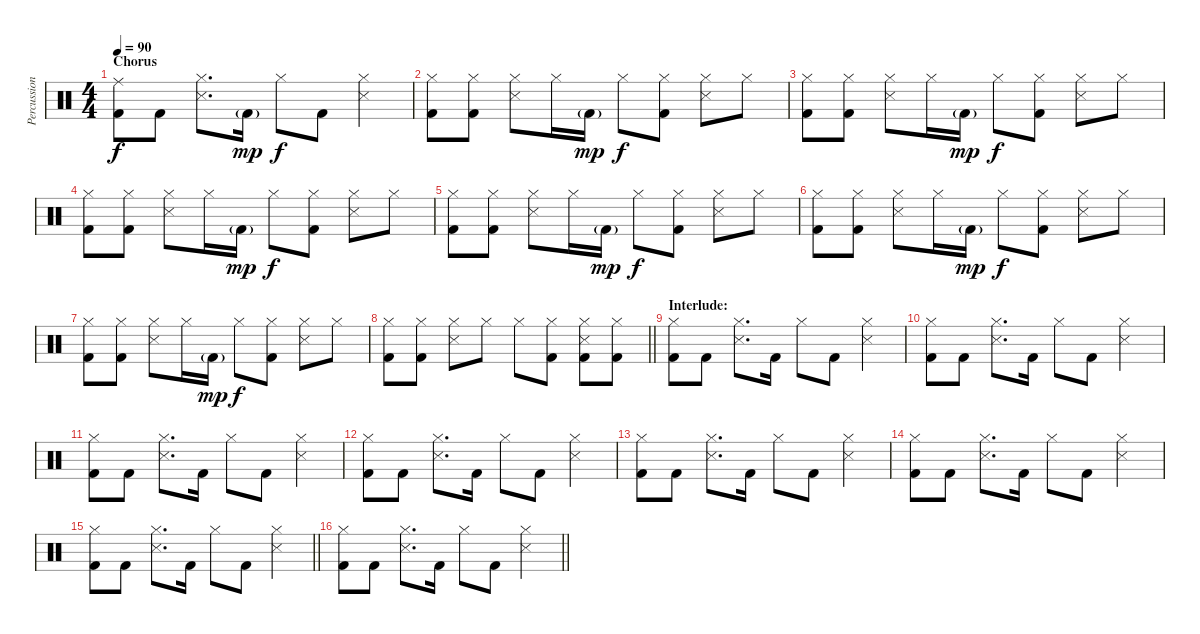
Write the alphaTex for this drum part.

\track ("Percussion" "Percussion") {instrument percussion}
\staff {score}
\articulation defaults
\ts (4 4)
\section ("" "Chorus")
\tempo 90
\clef neutral
\ks c
("Ride (middle)" "Kick (hit) 2").8{dy f} "Kick (hit) 2".8 ("Hi-Hat (closed)" "Snare (side stick) 3").8{d} "Kick (hit) 2"{g}.16{dy mp} "Hi-Hat (closed)".8{dy f} "Kick (hit) 2".8 ("Hi-Hat (closed)" "Snare (side stick) 3").4 |
("Hi-Hat (closed)" "Kick (hit) 2").8 ("Hi-Hat (closed)" "Kick (hit) 2").8 ("Hi-Hat (closed)" "Snare (side stick) 3").8 "Hi-Hat (closed)".16 "Kick (hit) 2"{g}.16{dy mp} "Hi-Hat (closed)".8{dy f} ("Hi-Hat (closed)" "Kick (hit) 2").8 ("Hi-Hat (closed)" "Snare (side stick) 3").8 "Hi-Hat (closed)".8 |
("Hi-Hat (closed)" "Kick (hit) 2").8 ("Hi-Hat (closed)" "Kick (hit) 2").8 ("Hi-Hat (closed)" "Snare (side stick) 3").8 "Hi-Hat (closed)".16 "Kick (hit) 2"{g}.16{dy mp} "Hi-Hat (closed)".8{dy f} ("Hi-Hat (closed)" "Kick (hit) 2").8 ("Hi-Hat (closed)" "Snare (side stick) 3").8 "Hi-Hat (closed)".8 |
("Hi-Hat (closed)" "Kick (hit) 2").8 ("Hi-Hat (closed)" "Kick (hit) 2").8 ("Hi-Hat (closed)" "Snare (side stick) 3").8 "Hi-Hat (closed)".16 "Kick (hit) 2"{g}.16{dy mp} "Hi-Hat (closed)".8{dy f} ("Hi-Hat (closed)" "Kick (hit) 2").8 ("Hi-Hat (closed)" "Snare (side stick) 3").8 "Hi-Hat (closed)".8 |
("Hi-Hat (closed)" "Kick (hit) 2").8 ("Hi-Hat (closed)" "Kick (hit) 2").8 ("Hi-Hat (closed)" "Snare (side stick) 3").8 "Hi-Hat (closed)".16 "Kick (hit) 2"{g}.16{dy mp} "Hi-Hat (closed)".8{dy f} ("Hi-Hat (closed)" "Kick (hit) 2").8 ("Hi-Hat (closed)" "Snare (side stick) 3").8 "Hi-Hat (closed)".8 |
("Hi-Hat (closed)" "Kick (hit) 2").8 ("Hi-Hat (closed)" "Kick (hit) 2").8 ("Hi-Hat (closed)" "Snare (side stick) 3").8 "Hi-Hat (closed)".16 "Kick (hit) 2"{g}.16{dy mp} "Hi-Hat (closed)".8{dy f} ("Hi-Hat (closed)" "Kick (hit) 2").8 ("Hi-Hat (closed)" "Snare (side stick) 3").8 "Hi-Hat (closed)".8 |
("Hi-Hat (closed)" "Kick (hit) 2").8 ("Hi-Hat (closed)" "Kick (hit) 2").8 ("Hi-Hat (closed)" "Snare (side stick) 3").8 "Hi-Hat (closed)".16 "Kick (hit) 2"{g}.16{dy mp} "Hi-Hat (closed)".8{dy f} ("Hi-Hat (closed)" "Kick (hit) 2").8 ("Hi-Hat (closed)" "Snare (side stick) 3").8 "Hi-Hat (closed)".8 |
\barLineRight lightlight
("Hi-Hat (closed)" "Kick (hit) 2").8 ("Hi-Hat (closed)" "Kick (hit) 2").8 ("Hi-Hat (closed)" "Snare (side stick) 3").8 "Hi-Hat (closed)".8 "Hi-Hat (closed)".8 ("Hi-Hat (closed)" "Kick (hit) 2").8 ("Hi-Hat (closed)" "Snare (side stick) 3" "Kick (hit) 2").8 ("Hi-Hat (closed)" "Kick (hit) 2").8 |
\section ("" "Interlude:")
("Hi-Hat (closed)" "Kick (hit) 2").8 "Kick (hit) 2".8 ("Hi-Hat (closed)" "Snare (side stick) 3").8{d} "Kick (hit) 2".16 "Hi-Hat (closed)".8 "Kick (hit) 2".8 ("Hi-Hat (closed)" "Snare (side stick) 3").4 |
("Hi-Hat (closed)" "Kick (hit) 2").8 "Kick (hit) 2".8 ("Hi-Hat (closed)" "Snare (side stick) 3").8{d} "Kick (hit) 2".16 "Hi-Hat (closed)".8 "Kick (hit) 2".8 ("Hi-Hat (closed)" "Snare (side stick) 3").4 |
("Hi-Hat (closed)" "Kick (hit) 2").8 "Kick (hit) 2".8 ("Hi-Hat (closed)" "Snare (side stick) 3").8{d} "Kick (hit) 2".16 "Hi-Hat (closed)".8 "Kick (hit) 2".8 ("Hi-Hat (closed)" "Snare (side stick) 3").4 |
("Hi-Hat (closed)" "Kick (hit) 2").8 "Kick (hit) 2".8 ("Hi-Hat (closed)" "Snare (side stick) 3").8{d} "Kick (hit) 2".16 "Hi-Hat (closed)".8 "Kick (hit) 2".8 ("Hi-Hat (closed)" "Snare (side stick) 3").4 |
("Hi-Hat (closed)" "Kick (hit) 2").8 "Kick (hit) 2".8 ("Hi-Hat (closed)" "Snare (side stick) 3").8{d} "Kick (hit) 2".16 "Hi-Hat (closed)".8 "Kick (hit) 2".8 ("Hi-Hat (closed)" "Snare (side stick) 3").4 |
("Hi-Hat (closed)" "Kick (hit) 2").8 "Kick (hit) 2".8 ("Hi-Hat (closed)" "Snare (side stick) 3").8{d} "Kick (hit) 2".16 "Hi-Hat (closed)".8 "Kick (hit) 2".8 ("Hi-Hat (closed)" "Snare (side stick) 3").4 |
\barLineRight lightlight
("Hi-Hat (closed)" "Kick (hit) 2").8 "Kick (hit) 2".8 ("Hi-Hat (closed)" "Snare (side stick) 3").8{d} "Kick (hit) 2".16 "Hi-Hat (closed)".8 "Kick (hit) 2".8 ("Hi-Hat (closed)" "Snare (side stick) 3").4 |
\barLineRight lightlight
("Hi-Hat (closed)" "Kick (hit) 2").8 "Kick (hit) 2".8 ("Hi-Hat (closed)" "Snare (side stick) 3").8{d} "Kick (hit) 2".16 "Hi-Hat (closed)".8 "Kick (hit) 2".8 ("Hi-Hat (closed)" "Snare (side stick) 3").4
